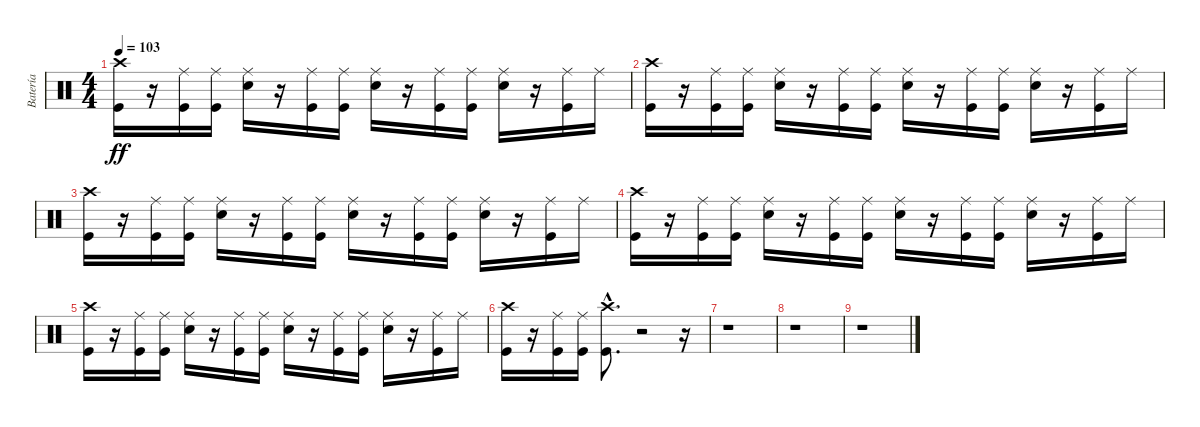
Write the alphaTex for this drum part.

\track ("Batería" "Batería") {instrument percussion}
\staff {score}
\articulation defaults
\ts (4 4)
\tempo 103
\clef neutral
\ks c
("Kick (hit)" "Crash high (hit)").16{dy ff} r.16 ("Kick (hit)" "Ride (middle)").16 ("Kick (hit)" "Ride (middle)").16 ("Ride (middle)" "Snare (hit) 2").16 r.16 ("Kick (hit)" "Ride (middle)").16 ("Kick (hit)" "Ride (middle)").16 ("Ride (middle)" "Snare (hit) 2").16 r.16 ("Kick (hit)" "Ride (middle)").16 ("Kick (hit)" "Ride (middle)").16 ("Ride (middle)" "Snare (hit) 2").16 r.16 ("Kick (hit)" "Ride (middle)").16 "Ride (middle)".16 |
("Kick (hit)" "Crash high (hit)").16 r.16 ("Kick (hit)" "Ride (middle)").16 ("Kick (hit)" "Ride (middle)").16 ("Ride (middle)" "Snare (hit) 2").16 r.16 ("Kick (hit)" "Ride (middle)").16 ("Kick (hit)" "Ride (middle)").16 ("Ride (middle)" "Snare (hit) 2").16 r.16 ("Kick (hit)" "Ride (middle)").16 ("Kick (hit)" "Ride (middle)").16 ("Ride (middle)" "Snare (hit) 2").16 r.16 ("Kick (hit)" "Ride (middle)").16 "Ride (middle)".16 |
("Kick (hit)" "Crash high (hit)").16 r.16 ("Kick (hit)" "Ride (middle)").16 ("Kick (hit)" "Ride (middle)").16 ("Ride (middle)" "Snare (hit) 2").16 r.16 ("Kick (hit)" "Ride (middle)").16 ("Kick (hit)" "Ride (middle)").16 ("Ride (middle)" "Snare (hit) 2").16 r.16 ("Kick (hit)" "Ride (middle)").16 ("Kick (hit)" "Ride (middle)").16 ("Ride (middle)" "Snare (hit) 2").16 r.16 ("Kick (hit)" "Ride (middle)").16 "Ride (middle)".16 |
("Kick (hit)" "Crash high (hit)").16 r.16 ("Kick (hit)" "Ride (middle)").16 ("Kick (hit)" "Ride (middle)").16 ("Ride (middle)" "Snare (hit) 2").16 r.16 ("Kick (hit)" "Ride (middle)").16 ("Kick (hit)" "Ride (middle)").16 ("Ride (middle)" "Snare (hit) 2").16 r.16 ("Kick (hit)" "Ride (middle)").16 ("Kick (hit)" "Ride (middle)").16 ("Ride (middle)" "Snare (hit) 2").16 r.16 ("Kick (hit)" "Ride (middle)").16 "Ride (middle)".16 |
("Kick (hit)" "Crash high (hit)").16 r.16 ("Kick (hit)" "Ride (middle)").16 ("Kick (hit)" "Ride (middle)").16 ("Ride (middle)" "Snare (hit) 2").16 r.16 ("Kick (hit)" "Ride (middle)").16 ("Kick (hit)" "Ride (middle)").16 ("Ride (middle)" "Snare (hit) 2").16 r.16 ("Kick (hit)" "Ride (middle)").16 ("Kick (hit)" "Ride (middle)").16 ("Ride (middle)" "Snare (hit) 2").16 r.16 ("Kick (hit)" "Ride (middle)").16 "Ride (middle)".16 |
("Kick (hit)" "Crash high (hit)").16 r.16 ("Kick (hit)" "Ride (middle)").16 ("Kick (hit)" "Ride (middle)").16 ("Crash high (hit)"{hac} "Kick (hit)").8{d} r.2 r.16 |
r.1 |
r.1 |
r.1
